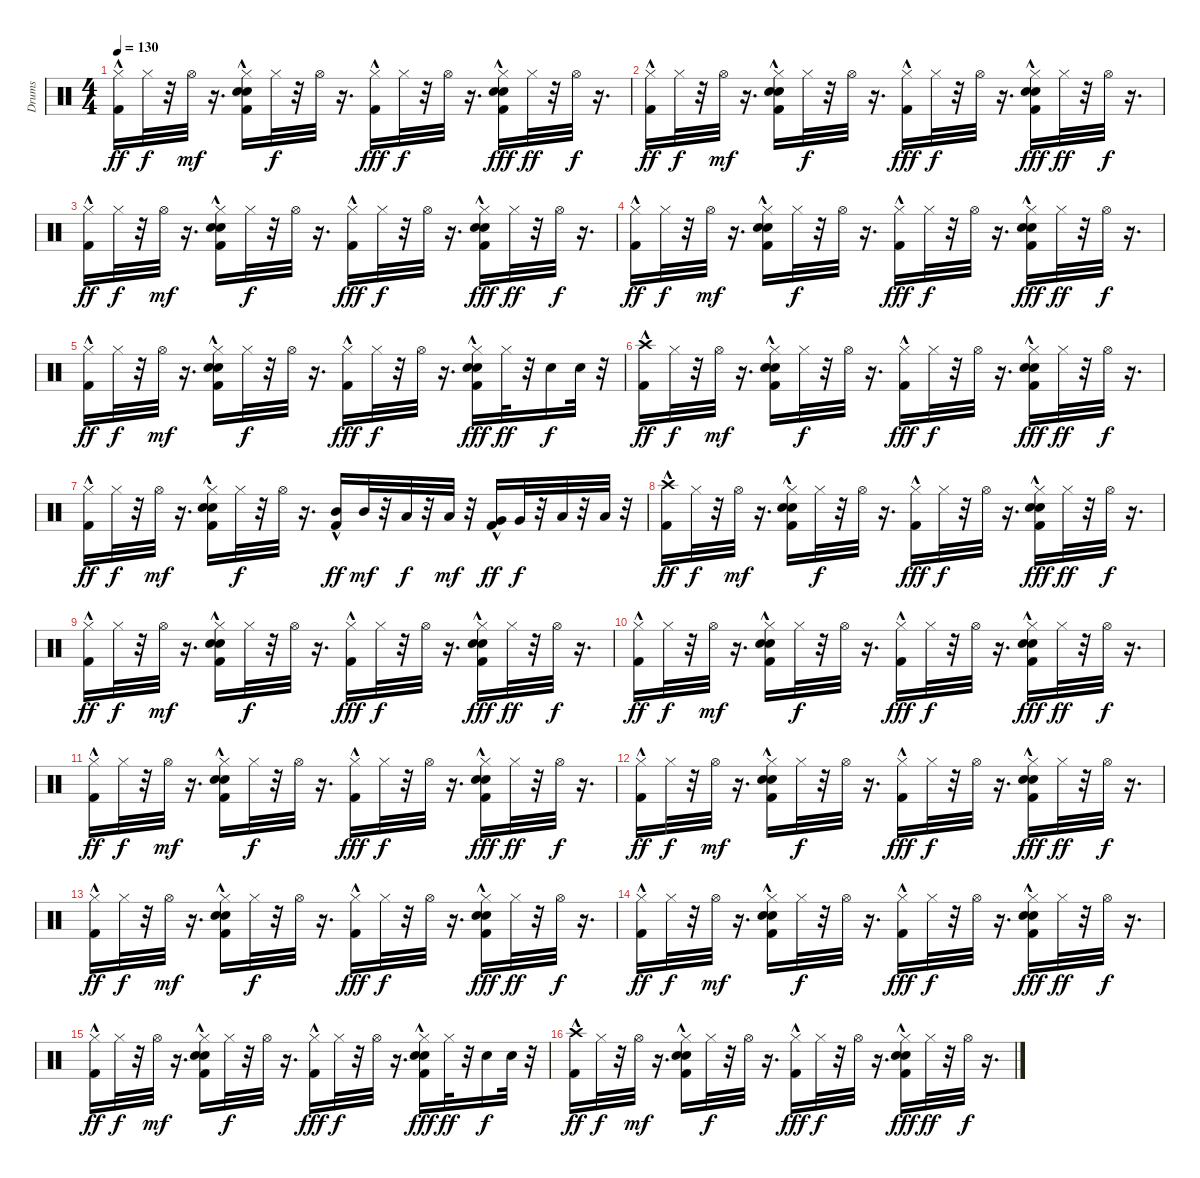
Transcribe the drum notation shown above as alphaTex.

\track ("Drums" "Drums") {instrument percussion}
\staff {score}
\articulation defaults
\ts (4 4)
\tempo 130
\clef neutral
\ks c
("Kick (hit) 2"{hac} "Hi-Hat (closed)").16{dy ff} "Hi-Hat (closed)".32{dy f} r.32 "Hi-Hat (open)".32{dy mf} r.16{d} ("Kick (hit) 2"{hac} "Hand Clap (hit)" "Electric Snare (hit)" "Hi-Hat (closed)").16 "Hi-Hat (closed)".32{dy f} r.32 "Hi-Hat (open)".32 r.16{d} ("Kick (hit) 2"{hac} "Hi-Hat (closed)").16{dy fff} "Hi-Hat (closed)".32{dy f} r.32 "Hi-Hat (open)".32 r.16{d} ("Kick (hit) 2"{hac} "Hand Clap (hit)" "Electric Snare (hit)" "Hi-Hat (closed)").16{dy fff} "Hi-Hat (closed)".32{dy ff} r.32 "Hi-Hat (open)".32{dy f} r.16{d} |
("Kick (hit) 2"{hac} "Hi-Hat (closed)").16{dy ff} "Hi-Hat (closed)".32{dy f} r.32 "Hi-Hat (open)".32{dy mf} r.16{d} ("Kick (hit) 2"{hac} "Hand Clap (hit)" "Electric Snare (hit)" "Hi-Hat (closed)").16 "Hi-Hat (closed)".32{dy f} r.32 "Hi-Hat (open)".32 r.16{d} ("Kick (hit) 2"{hac} "Hi-Hat (closed)").16{dy fff} "Hi-Hat (closed)".32{dy f} r.32 "Hi-Hat (open)".32 r.16{d} ("Kick (hit) 2"{hac} "Hand Clap (hit)" "Electric Snare (hit)" "Hi-Hat (closed)").16{dy fff} "Hi-Hat (closed)".32{dy ff} r.32 "Hi-Hat (open)".32{dy f} r.16{d} |
("Kick (hit) 2"{hac} "Hi-Hat (closed)").16{dy ff} "Hi-Hat (closed)".32{dy f} r.32 "Hi-Hat (open)".32{dy mf} r.16{d} ("Kick (hit) 2"{hac} "Hand Clap (hit)" "Electric Snare (hit)" "Hi-Hat (closed)").16 "Hi-Hat (closed)".32{dy f} r.32 "Hi-Hat (open)".32 r.16{d} ("Kick (hit) 2"{hac} "Hi-Hat (closed)").16{dy fff} "Hi-Hat (closed)".32{dy f} r.32 "Hi-Hat (open)".32 r.16{d} ("Kick (hit) 2"{hac} "Hand Clap (hit)" "Electric Snare (hit)" "Hi-Hat (closed)").16{dy fff} "Hi-Hat (closed)".32{dy ff} r.32 "Hi-Hat (open)".32{dy f} r.16{d} |
("Kick (hit) 2"{hac} "Hi-Hat (closed)").16{dy ff} "Hi-Hat (closed)".32{dy f} r.32 "Hi-Hat (open)".32{dy mf} r.16{d} ("Kick (hit) 2"{hac} "Hand Clap (hit)" "Electric Snare (hit)" "Hi-Hat (closed)").16 "Hi-Hat (closed)".32{dy f} r.32 "Hi-Hat (open)".32 r.16{d} ("Kick (hit) 2"{hac} "Hi-Hat (closed)").16{dy fff} "Hi-Hat (closed)".32{dy f} r.32 "Hi-Hat (open)".32 r.16{d} ("Kick (hit) 2"{hac} "Hand Clap (hit)" "Electric Snare (hit)" "Hi-Hat (closed)").16{dy fff} "Hi-Hat (closed)".32{dy ff} r.32 "Hi-Hat (open)".32{dy f} r.16{d} |
("Kick (hit) 2"{hac} "Hi-Hat (closed)").16{dy ff} "Hi-Hat (closed)".32{dy f} r.32 "Hi-Hat (open)".32{dy mf} r.16{d} ("Kick (hit) 2"{hac} "Hand Clap (hit)" "Electric Snare (hit)" "Hi-Hat (closed)").16 "Hi-Hat (closed)".32{dy f} r.32 "Hi-Hat (open)".32 r.16{d} ("Kick (hit) 2"{hac} "Hi-Hat (closed)").16{dy fff} "Hi-Hat (closed)".32{dy f} r.32 "Hi-Hat (open)".32 r.16{d} ("Kick (hit) 2"{hac} "Hand Clap (hit)" "Electric Snare (hit)" "Hi-Hat (closed)").16{dy fff} "Hi-Hat (closed)".32{dy ff} r.32 "Electric Snare (hit)".16{dy f} "Electric Snare (hit)".32 r.32 |
("Kick (hit) 2"{hac} "Crash high (hit)").16{dy ff} "Hi-Hat (closed)".32{dy f} r.32 "Hi-Hat (open)".32{dy mf} r.16{d} ("Kick (hit) 2"{hac} "Hand Clap (hit)" "Electric Snare (hit)" "Hi-Hat (closed)").16 "Hi-Hat (closed)".32{dy f} r.32 "Hi-Hat (open)".32 r.16{d} ("Kick (hit) 2"{hac} "Hi-Hat (closed)").16{dy fff} "Hi-Hat (closed)".32{dy f} r.32 "Hi-Hat (open)".32 r.16{d} ("Kick (hit) 2"{hac} "Hand Clap (hit)" "Electric Snare (hit)" "Hi-Hat (closed)").16{dy fff} "Hi-Hat (closed)".32{dy ff} r.32 "Hi-Hat (open)".32{dy f} r.16{d} |
("Kick (hit) 2"{hac} "Hi-Hat (closed)").16{dy ff} "Hi-Hat (closed)".32{dy f} r.32 "Hi-Hat (open)".32{dy mf} r.16{d} ("Kick (hit) 2"{hac} "Hand Clap (hit)" "Electric Snare (hit)" "Hi-Hat (closed)").16 "Hi-Hat (closed)".32{dy f} r.32 "Hi-Hat (open)".32 r.16{d} ("Kick (hit) 2"{hac} "Mid Tom (hit)").16{dy ff} "Mid Tom (hit)".32{dy mf} r.32 "Low Tom (hit)".32{dy f} r.32 "Low Tom (hit)".32{dy mf} r.32 ("Kick (hit) 2"{hac} "Very Low Tom (hit)").16{dy ff} "Very Low Tom (hit)".32{dy f} r.32 "Low Floor Tom (hit)".32 r.32 "Low Floor Tom (hit)".32 r.32 |
("Kick (hit) 2"{hac} "Crash high (hit)").16{dy ff} "Hi-Hat (closed)".32{dy f} r.32 "Hi-Hat (open)".32{dy mf} r.16{d} ("Kick (hit) 2"{hac} "Hand Clap (hit)" "Electric Snare (hit)" "Hi-Hat (closed)").16 "Hi-Hat (closed)".32{dy f} r.32 "Hi-Hat (open)".32 r.16{d} ("Kick (hit) 2"{hac} "Hi-Hat (closed)").16{dy fff} "Hi-Hat (closed)".32{dy f} r.32 "Hi-Hat (open)".32 r.16{d} ("Kick (hit) 2"{hac} "Hand Clap (hit)" "Electric Snare (hit)" "Hi-Hat (closed)").16{dy fff} "Hi-Hat (closed)".32{dy ff} r.32 "Hi-Hat (open)".32{dy f} r.16{d} |
("Kick (hit) 2"{hac} "Hi-Hat (closed)").16{dy ff} "Hi-Hat (closed)".32{dy f} r.32 "Hi-Hat (open)".32{dy mf} r.16{d} ("Kick (hit) 2"{hac} "Hand Clap (hit)" "Electric Snare (hit)" "Hi-Hat (closed)").16 "Hi-Hat (closed)".32{dy f} r.32 "Hi-Hat (open)".32 r.16{d} ("Kick (hit) 2"{hac} "Hi-Hat (closed)").16{dy fff} "Hi-Hat (closed)".32{dy f} r.32 "Hi-Hat (open)".32 r.16{d} ("Kick (hit) 2"{hac} "Hand Clap (hit)" "Electric Snare (hit)" "Hi-Hat (closed)").16{dy fff} "Hi-Hat (closed)".32{dy ff} r.32 "Hi-Hat (open)".32{dy f} r.16{d} |
("Kick (hit) 2"{hac} "Hi-Hat (closed)").16{dy ff} "Hi-Hat (closed)".32{dy f} r.32 "Hi-Hat (open)".32{dy mf} r.16{d} ("Kick (hit) 2"{hac} "Hand Clap (hit)" "Electric Snare (hit)" "Hi-Hat (closed)").16 "Hi-Hat (closed)".32{dy f} r.32 "Hi-Hat (open)".32 r.16{d} ("Kick (hit) 2"{hac} "Hi-Hat (closed)").16{dy fff} "Hi-Hat (closed)".32{dy f} r.32 "Hi-Hat (open)".32 r.16{d} ("Kick (hit) 2"{hac} "Hand Clap (hit)" "Electric Snare (hit)" "Hi-Hat (closed)").16{dy fff} "Hi-Hat (closed)".32{dy ff} r.32 "Hi-Hat (open)".32{dy f} r.16{d} |
("Kick (hit) 2"{hac} "Hi-Hat (closed)").16{dy ff} "Hi-Hat (closed)".32{dy f} r.32 "Hi-Hat (open)".32{dy mf} r.16{d} ("Kick (hit) 2"{hac} "Hand Clap (hit)" "Electric Snare (hit)" "Hi-Hat (closed)").16 "Hi-Hat (closed)".32{dy f} r.32 "Hi-Hat (open)".32 r.16{d} ("Kick (hit) 2"{hac} "Hi-Hat (closed)").16{dy fff} "Hi-Hat (closed)".32{dy f} r.32 "Hi-Hat (open)".32 r.16{d} ("Kick (hit) 2"{hac} "Hand Clap (hit)" "Electric Snare (hit)" "Hi-Hat (closed)").16{dy fff} "Hi-Hat (closed)".32{dy ff} r.32 "Hi-Hat (open)".32{dy f} r.16{d} |
("Kick (hit) 2"{hac} "Hi-Hat (closed)").16{dy ff} "Hi-Hat (closed)".32{dy f} r.32 "Hi-Hat (open)".32{dy mf} r.16{d} ("Kick (hit) 2"{hac} "Hand Clap (hit)" "Electric Snare (hit)" "Hi-Hat (closed)").16 "Hi-Hat (closed)".32{dy f} r.32 "Hi-Hat (open)".32 r.16{d} ("Kick (hit) 2"{hac} "Hi-Hat (closed)").16{dy fff} "Hi-Hat (closed)".32{dy f} r.32 "Hi-Hat (open)".32 r.16{d} ("Kick (hit) 2"{hac} "Hand Clap (hit)" "Electric Snare (hit)" "Hi-Hat (closed)").16{dy fff} "Hi-Hat (closed)".32{dy ff} r.32 "Hi-Hat (open)".32{dy f} r.16{d} |
("Kick (hit) 2"{hac} "Hi-Hat (closed)").16{dy ff} "Hi-Hat (closed)".32{dy f} r.32 "Hi-Hat (open)".32{dy mf} r.16{d} ("Kick (hit) 2"{hac} "Hand Clap (hit)" "Electric Snare (hit)" "Hi-Hat (closed)").16 "Hi-Hat (closed)".32{dy f} r.32 "Hi-Hat (open)".32 r.16{d} ("Kick (hit) 2"{hac} "Hi-Hat (closed)").16{dy fff} "Hi-Hat (closed)".32{dy f} r.32 "Hi-Hat (open)".32 r.16{d} ("Kick (hit) 2"{hac} "Hand Clap (hit)" "Electric Snare (hit)" "Hi-Hat (closed)").16{dy fff} "Hi-Hat (closed)".32{dy ff} r.32 "Hi-Hat (open)".32{dy f} r.16{d} |
("Kick (hit) 2"{hac} "Hi-Hat (closed)").16{dy ff} "Hi-Hat (closed)".32{dy f} r.32 "Hi-Hat (open)".32{dy mf} r.16{d} ("Kick (hit) 2"{hac} "Hand Clap (hit)" "Electric Snare (hit)" "Hi-Hat (closed)").16 "Hi-Hat (closed)".32{dy f} r.32 "Hi-Hat (open)".32 r.16{d} ("Kick (hit) 2"{hac} "Hi-Hat (closed)").16{dy fff} "Hi-Hat (closed)".32{dy f} r.32 "Hi-Hat (open)".32 r.16{d} ("Kick (hit) 2"{hac} "Hand Clap (hit)" "Electric Snare (hit)" "Hi-Hat (closed)").16{dy fff} "Hi-Hat (closed)".32{dy ff} r.32 "Hi-Hat (open)".32{dy f} r.16{d} |
("Kick (hit) 2"{hac} "Hi-Hat (closed)").16{dy ff} "Hi-Hat (closed)".32{dy f} r.32 "Hi-Hat (open)".32{dy mf} r.16{d} ("Kick (hit) 2"{hac} "Hand Clap (hit)" "Electric Snare (hit)" "Hi-Hat (closed)").16 "Hi-Hat (closed)".32{dy f} r.32 "Hi-Hat (open)".32 r.16{d} ("Kick (hit) 2"{hac} "Hi-Hat (closed)").16{dy fff} "Hi-Hat (closed)".32{dy f} r.32 "Hi-Hat (open)".32 r.16{d} ("Kick (hit) 2"{hac} "Hand Clap (hit)" "Electric Snare (hit)" "Hi-Hat (closed)").16{dy fff} "Hi-Hat (closed)".32{dy ff} r.32 "Electric Snare (hit)".16{dy f} "Electric Snare (hit)".32 r.32 |
("Kick (hit) 2"{hac} "Crash high (hit)").16{dy ff} "Hi-Hat (closed)".32{dy f} r.32 "Hi-Hat (open)".32{dy mf} r.16{d} ("Kick (hit) 2"{hac} "Hand Clap (hit)" "Electric Snare (hit)" "Hi-Hat (closed)").16 "Hi-Hat (closed)".32{dy f} r.32 "Hi-Hat (open)".32 r.16{d} ("Kick (hit) 2"{hac} "Hi-Hat (closed)").16{dy fff} "Hi-Hat (closed)".32{dy f} r.32 "Hi-Hat (open)".32 r.16{d} ("Kick (hit) 2"{hac} "Hand Clap (hit)" "Electric Snare (hit)" "Hi-Hat (closed)").16{dy fff} "Hi-Hat (closed)".32{dy ff} r.32 "Hi-Hat (open)".32{dy f} r.16{d}
